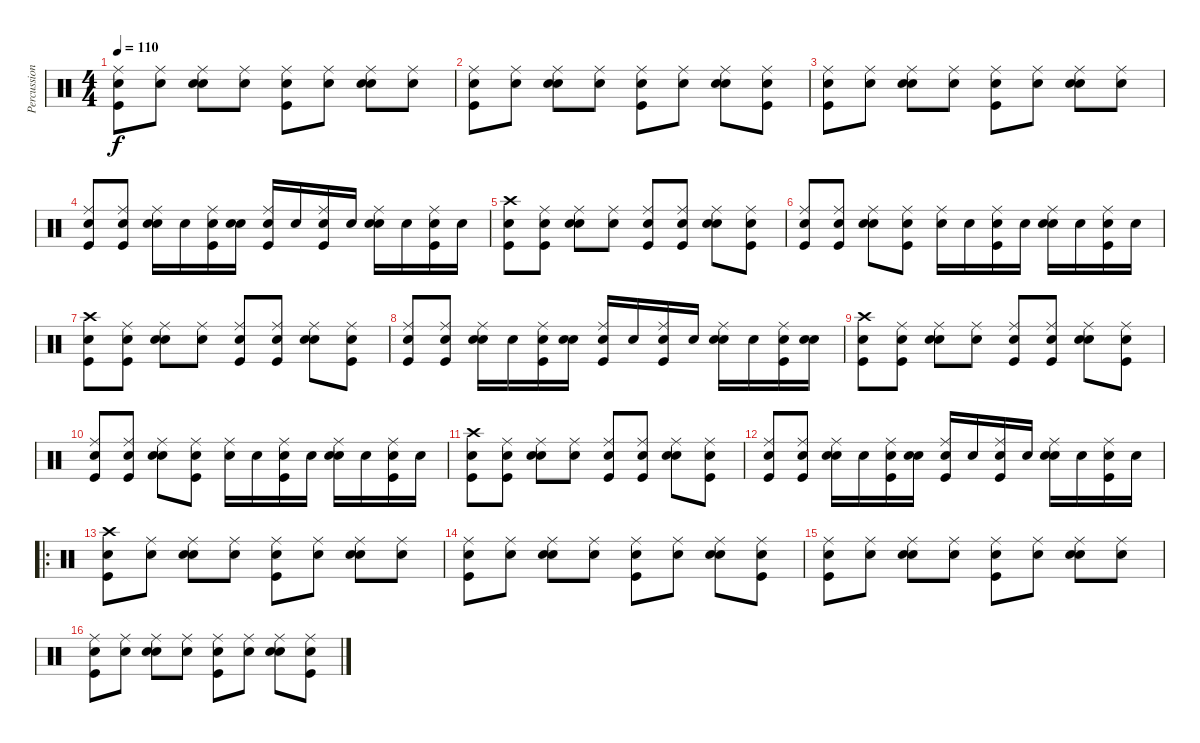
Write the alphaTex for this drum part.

\track ("Percussion" "Percussion") {instrument percussion}
\staff {score}
\articulation defaults
\ts (4 4)
\tempo 110
\clef neutral
\ks c
("Snare (hit)" "Ride (middle)" "Kick (hit)").8{dy f} ("Snare (hit)" "Ride (middle)").8 ("Snare (hit)" "Ride (middle)" "Snare (hit) 2").8 ("Snare (hit)" "Ride (middle)").8 ("Snare (hit)" "Ride (middle)" "Kick (hit)").8 ("Snare (hit)" "Ride (middle)").8 ("Snare (hit)" "Ride (middle)" "Snare (hit) 2").8 ("Snare (hit)" "Ride (middle)").8 |
("Snare (hit)" "Ride (middle)" "Kick (hit)").8 ("Snare (hit)" "Ride (middle)").8 ("Snare (hit)" "Ride (middle)" "Snare (hit) 2").8 ("Snare (hit)" "Ride (middle)").8 ("Snare (hit)" "Ride (middle)" "Kick (hit)").8 ("Snare (hit)" "Ride (middle)").8 ("Snare (hit)" "Ride (middle)" "Snare (hit) 2").8 ("Snare (hit)" "Ride (middle)" "Kick (hit)").8 |
("Snare (hit)" "Ride (middle)" "Kick (hit)").8 ("Snare (hit)" "Ride (middle)").8 ("Snare (hit)" "Ride (middle)" "Snare (hit) 2").8 ("Snare (hit)" "Ride (middle)").8 ("Snare (hit)" "Ride (middle)" "Kick (hit)").8 ("Snare (hit)" "Ride (middle)").8 ("Snare (hit)" "Ride (middle)" "Snare (hit) 2").8 ("Snare (hit)" "Ride (middle)").8 |
("Snare (hit)" "Ride (middle)" "Kick (hit)").8 ("Snare (hit)" "Ride (middle)" "Kick (hit)").8 ("Snare (hit)" "Ride (middle)" "Snare (hit) 2").16 "Snare (hit)".16 ("Snare (hit)" "Ride (middle)" "Kick (hit)").16 ("Snare (hit)" "Snare (hit) 2").16 ("Snare (hit)" "Ride (middle)" "Kick (hit)").16 "Snare (hit)".16 ("Snare (hit)" "Ride (middle)" "Kick (hit)").16 "Snare (hit)".16 ("Snare (hit)" "Ride (middle)" "Snare (hit) 2").16 "Snare (hit)".16 ("Snare (hit)" "Ride (middle)" "Kick (hit)").16 "Snare (hit)".16 |
("Snare (hit)" "Crash high (hit)" "Kick (hit)").8 ("Snare (hit)" "Ride (middle)" "Kick (hit)").8 ("Snare (hit)" "Ride (middle)" "Snare (hit) 2").8 ("Snare (hit)" "Ride (middle)").8 ("Snare (hit)" "Ride (middle)" "Kick (hit)").8 ("Snare (hit)" "Ride (middle)" "Kick (hit)").8 ("Snare (hit)" "Ride (middle)" "Snare (hit) 2").8 ("Snare (hit)" "Ride (middle)" "Kick (hit)").8 |
("Snare (hit)" "Ride (middle)" "Kick (hit)").8 ("Snare (hit)" "Ride (middle)" "Kick (hit)").8 ("Snare (hit)" "Ride (middle)" "Snare (hit) 2").8 ("Snare (hit)" "Ride (middle)" "Kick (hit)").8 ("Snare (hit)" "Ride (middle)").16 "Snare (hit)".16 ("Snare (hit)" "Ride (middle)" "Kick (hit)").16 "Snare (hit)".16 ("Snare (hit)" "Ride (middle)" "Snare (hit) 2").16 "Snare (hit)".16 ("Snare (hit)" "Ride (middle)" "Kick (hit)").16 "Snare (hit)".16 |
("Snare (hit)" "Crash high (hit)" "Kick (hit)").8 ("Snare (hit)" "Ride (middle)" "Kick (hit)").8 ("Snare (hit)" "Ride (middle)" "Snare (hit) 2").8 ("Snare (hit)" "Ride (middle)").8 ("Snare (hit)" "Ride (middle)" "Kick (hit)").8 ("Snare (hit)" "Ride (middle)" "Kick (hit)").8 ("Snare (hit)" "Ride (middle)" "Snare (hit) 2").8 ("Snare (hit)" "Ride (middle)" "Kick (hit)").8 |
("Snare (hit)" "Ride (middle)" "Kick (hit)").8 ("Snare (hit)" "Ride (middle)" "Kick (hit)").8 ("Snare (hit)" "Ride (middle)" "Snare (hit) 2").16 "Snare (hit)".16 ("Snare (hit)" "Ride (middle)" "Kick (hit)").16 ("Snare (hit)" "Snare (hit) 2").16 ("Snare (hit)" "Ride (middle)" "Kick (hit)").16 "Snare (hit)".16 ("Snare (hit)" "Ride (middle)" "Kick (hit)").16 "Snare (hit)".16 ("Snare (hit)" "Ride (middle)" "Snare (hit) 2").16 "Snare (hit)".16 ("Snare (hit)" "Ride (middle)" "Kick (hit)").16 ("Snare (hit)" "Snare (hit) 2").16 |
("Snare (hit)" "Crash high (hit)" "Kick (hit)").8 ("Snare (hit)" "Ride (middle)" "Kick (hit)").8 ("Snare (hit)" "Ride (middle)" "Snare (hit) 2").8 ("Snare (hit)" "Ride (middle)").8 ("Snare (hit)" "Ride (middle)" "Kick (hit)").8 ("Snare (hit)" "Ride (middle)" "Kick (hit)").8 ("Snare (hit)" "Ride (middle)" "Snare (hit) 2").8 ("Snare (hit)" "Ride (middle)" "Kick (hit)").8 |
("Snare (hit)" "Ride (middle)" "Kick (hit)").8 ("Snare (hit)" "Ride (middle)" "Kick (hit)").8 ("Snare (hit)" "Ride (middle)" "Snare (hit) 2").8 ("Snare (hit)" "Ride (middle)" "Kick (hit)").8 ("Snare (hit)" "Ride (middle)").16 "Snare (hit)".16 ("Snare (hit)" "Ride (middle)" "Kick (hit)").16 "Snare (hit)".16 ("Snare (hit)" "Ride (middle)" "Snare (hit) 2").16 "Snare (hit)".16 ("Snare (hit)" "Ride (middle)" "Kick (hit)").16 "Snare (hit)".16 |
("Snare (hit)" "Crash high (hit)" "Kick (hit)").8 ("Snare (hit)" "Ride (middle)" "Kick (hit)").8 ("Snare (hit)" "Ride (middle)" "Snare (hit) 2").8 ("Snare (hit)" "Ride (middle)").8 ("Snare (hit)" "Ride (middle)" "Kick (hit)").8 ("Snare (hit)" "Ride (middle)" "Kick (hit)").8 ("Snare (hit)" "Ride (middle)" "Snare (hit) 2").8 ("Snare (hit)" "Ride (middle)" "Kick (hit)").8 |
("Snare (hit)" "Ride (middle)" "Kick (hit)").8 ("Snare (hit)" "Ride (middle)" "Kick (hit)").8 ("Snare (hit)" "Ride (middle)" "Snare (hit) 2").16 "Snare (hit)".16 ("Snare (hit)" "Ride (middle)" "Kick (hit)").16 ("Snare (hit)" "Snare (hit) 2").16 ("Snare (hit)" "Ride (middle)" "Kick (hit)").16 "Snare (hit)".16 ("Snare (hit)" "Ride (middle)" "Kick (hit)").16 "Snare (hit)".16 ("Snare (hit)" "Ride (middle)" "Snare (hit) 2").16 "Snare (hit)".16 ("Snare (hit)" "Ride (middle)" "Kick (hit)").16 "Snare (hit)".16 |
\ro
("Snare (hit)" "Crash high (hit)" "Kick (hit)").8 ("Snare (hit)" "Ride (middle)").8 ("Snare (hit)" "Ride (middle)" "Snare (hit) 2").8 ("Snare (hit)" "Ride (middle)").8 ("Snare (hit)" "Ride (middle)" "Kick (hit)").8 ("Snare (hit)" "Ride (middle)").8 ("Snare (hit)" "Ride (middle)" "Snare (hit) 2").8 ("Snare (hit)" "Ride (middle)").8 |
("Snare (hit)" "Ride (middle)" "Kick (hit)").8 ("Snare (hit)" "Ride (middle)").8 ("Snare (hit)" "Ride (middle)" "Snare (hit) 2").8 ("Snare (hit)" "Ride (middle)").8 ("Snare (hit)" "Ride (middle)" "Kick (hit)").8 ("Snare (hit)" "Ride (middle)").8 ("Snare (hit)" "Ride (middle)" "Snare (hit) 2").8 ("Snare (hit)" "Ride (middle)" "Kick (hit)").8 |
("Snare (hit)" "Ride (middle)" "Kick (hit)").8 ("Snare (hit)" "Ride (middle)").8 ("Snare (hit)" "Ride (middle)" "Snare (hit) 2").8 ("Snare (hit)" "Ride (middle)").8 ("Snare (hit)" "Ride (middle)" "Kick (hit)").8 ("Snare (hit)" "Ride (middle)").8 ("Snare (hit)" "Ride (middle)" "Snare (hit) 2").8 ("Snare (hit)" "Ride (middle)").8 |
("Snare (hit)" "Ride (middle)" "Kick (hit)").8 ("Snare (hit)" "Ride (middle)").8 ("Snare (hit)" "Ride (middle)" "Snare (hit) 2").8 ("Snare (hit)" "Ride (middle)").8 ("Snare (hit)" "Ride (middle)" "Kick (hit)").8 ("Snare (hit)" "Ride (middle)").8 ("Snare (hit)" "Ride (middle)" "Snare (hit) 2").8 ("Snare (hit)" "Ride (middle)" "Kick (hit)").8
